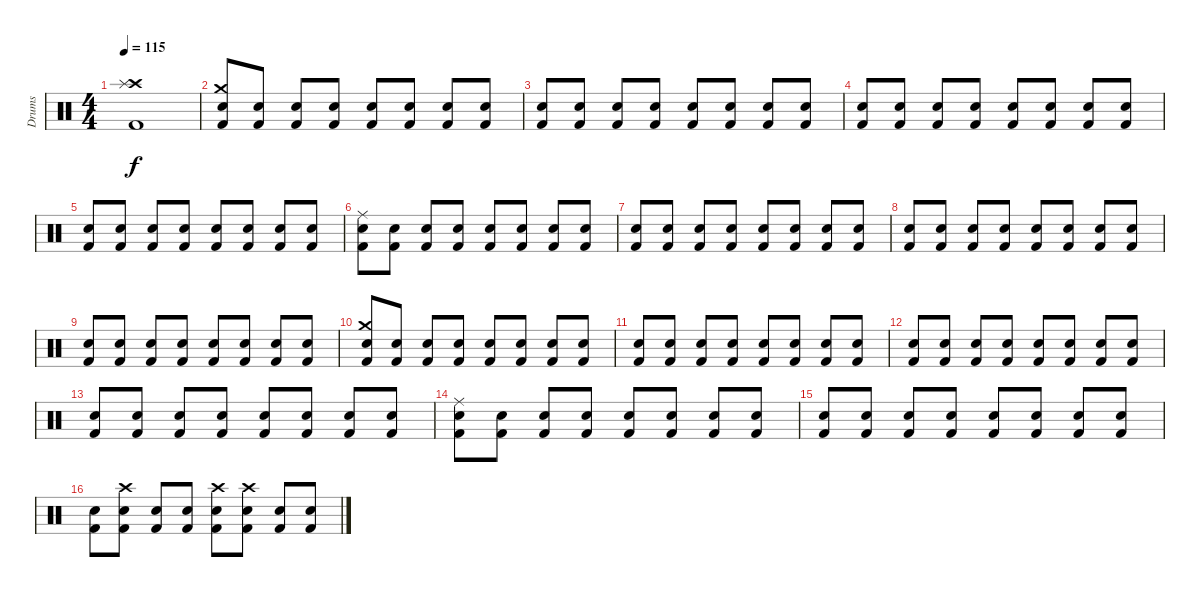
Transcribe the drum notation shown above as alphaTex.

\track ("Drums" "Drums") {instrument percussion}
\staff {score}
\articulation defaults
\ts (4 4)
\tempo 115
\clef neutral
\ks c
("Crash high (hit)" "Splash (hit)" "Kick (hit) 2").1{dy f} |
("Crash medium (hit)" "Snare (hit) 2" "Kick (hit) 2").8 ("Snare (hit) 2" "Kick (hit) 2").8 ("Snare (hit) 2" "Kick (hit) 2").8 ("Snare (hit) 2" "Kick (hit) 2").8 ("Snare (hit) 2" "Kick (hit) 2").8 ("Snare (hit) 2" "Kick (hit) 2").8 ("Snare (hit) 2" "Kick (hit) 2").8 ("Snare (hit) 2" "Kick (hit) 2").8 |
("Snare (hit) 2" "Kick (hit) 2").8 ("Snare (hit) 2" "Kick (hit) 2").8 ("Snare (hit) 2" "Kick (hit) 2").8 ("Snare (hit) 2" "Kick (hit) 2").8 ("Snare (hit) 2" "Kick (hit) 2").8 ("Snare (hit) 2" "Kick (hit) 2").8 ("Snare (hit) 2" "Kick (hit) 2").8 ("Snare (hit) 2" "Kick (hit) 2").8 |
("Snare (hit) 2" "Kick (hit) 2").8 ("Snare (hit) 2" "Kick (hit) 2").8 ("Snare (hit) 2" "Kick (hit) 2").8 ("Snare (hit) 2" "Kick (hit) 2").8 ("Snare (hit) 2" "Kick (hit) 2").8 ("Snare (hit) 2" "Kick (hit) 2").8 ("Snare (hit) 2" "Kick (hit) 2").8 ("Snare (hit) 2" "Kick (hit) 2").8 |
("Snare (hit) 2" "Kick (hit) 2").8 ("Snare (hit) 2" "Kick (hit) 2").8 ("Snare (hit) 2" "Kick (hit) 2").8 ("Snare (hit) 2" "Kick (hit) 2").8 ("Snare (hit) 2" "Kick (hit) 2").8 ("Snare (hit) 2" "Kick (hit) 2").8 ("Snare (hit) 2" "Kick (hit) 2").8 ("Snare (hit) 2" "Kick (hit) 2").8 |
("Ride (middle)" "Snare (hit) 2" "Kick (hit) 2").8 ("Snare (hit) 2" "Kick (hit) 2").8 ("Snare (hit) 2" "Kick (hit) 2").8 ("Snare (hit) 2" "Kick (hit) 2").8 ("Snare (hit) 2" "Kick (hit) 2").8 ("Snare (hit) 2" "Kick (hit) 2").8 ("Snare (hit) 2" "Kick (hit) 2").8 ("Snare (hit) 2" "Kick (hit) 2").8 |
("Snare (hit) 2" "Kick (hit) 2").8 ("Snare (hit) 2" "Kick (hit) 2").8 ("Snare (hit) 2" "Kick (hit) 2").8 ("Snare (hit) 2" "Kick (hit) 2").8 ("Snare (hit) 2" "Kick (hit) 2").8 ("Snare (hit) 2" "Kick (hit) 2").8 ("Snare (hit) 2" "Kick (hit) 2").8 ("Snare (hit) 2" "Kick (hit) 2").8 |
("Snare (hit) 2" "Kick (hit) 2").8 ("Snare (hit) 2" "Kick (hit) 2").8 ("Snare (hit) 2" "Kick (hit) 2").8 ("Snare (hit) 2" "Kick (hit) 2").8 ("Snare (hit) 2" "Kick (hit) 2").8 ("Snare (hit) 2" "Kick (hit) 2").8 ("Snare (hit) 2" "Kick (hit) 2").8 ("Snare (hit) 2" "Kick (hit) 2").8 |
("Snare (hit) 2" "Kick (hit) 2").8 ("Snare (hit) 2" "Kick (hit) 2").8 ("Snare (hit) 2" "Kick (hit) 2").8 ("Snare (hit) 2" "Kick (hit) 2").8 ("Snare (hit) 2" "Kick (hit) 2").8 ("Snare (hit) 2" "Kick (hit) 2").8 ("Snare (hit) 2" "Kick (hit) 2").8 ("Snare (hit) 2" "Kick (hit) 2").8 |
("Crash medium (hit)" "Snare (hit) 2" "Kick (hit) 2").8 ("Snare (hit) 2" "Kick (hit) 2").8 ("Snare (hit) 2" "Kick (hit) 2").8 ("Snare (hit) 2" "Kick (hit) 2").8 ("Snare (hit) 2" "Kick (hit) 2").8 ("Snare (hit) 2" "Kick (hit) 2").8 ("Snare (hit) 2" "Kick (hit) 2").8 ("Snare (hit) 2" "Kick (hit) 2").8 |
("Snare (hit) 2" "Kick (hit) 2").8 ("Snare (hit) 2" "Kick (hit) 2").8 ("Snare (hit) 2" "Kick (hit) 2").8 ("Snare (hit) 2" "Kick (hit) 2").8 ("Snare (hit) 2" "Kick (hit) 2").8 ("Snare (hit) 2" "Kick (hit) 2").8 ("Snare (hit) 2" "Kick (hit) 2").8 ("Snare (hit) 2" "Kick (hit) 2").8 |
("Snare (hit) 2" "Kick (hit) 2").8 ("Snare (hit) 2" "Kick (hit) 2").8 ("Snare (hit) 2" "Kick (hit) 2").8 ("Snare (hit) 2" "Kick (hit) 2").8 ("Snare (hit) 2" "Kick (hit) 2").8 ("Snare (hit) 2" "Kick (hit) 2").8 ("Snare (hit) 2" "Kick (hit) 2").8 ("Snare (hit) 2" "Kick (hit) 2").8 |
("Snare (hit) 2" "Kick (hit) 2").8 ("Snare (hit) 2" "Kick (hit) 2").8 ("Snare (hit) 2" "Kick (hit) 2").8 ("Snare (hit) 2" "Kick (hit) 2").8 ("Snare (hit) 2" "Kick (hit) 2").8 ("Snare (hit) 2" "Kick (hit) 2").8 ("Snare (hit) 2" "Kick (hit) 2").8 ("Snare (hit) 2" "Kick (hit) 2").8 |
("Ride (middle)" "Snare (hit) 2" "Kick (hit) 2").8 ("Snare (hit) 2" "Kick (hit) 2").8 ("Snare (hit) 2" "Kick (hit) 2").8 ("Snare (hit) 2" "Kick (hit) 2").8 ("Snare (hit) 2" "Kick (hit) 2").8 ("Snare (hit) 2" "Kick (hit) 2").8 ("Snare (hit) 2" "Kick (hit) 2").8 ("Snare (hit) 2" "Kick (hit) 2").8 |
("Snare (hit) 2" "Kick (hit) 2").8 ("Snare (hit) 2" "Kick (hit) 2").8 ("Snare (hit) 2" "Kick (hit) 2").8 ("Snare (hit) 2" "Kick (hit) 2").8 ("Snare (hit) 2" "Kick (hit) 2").8 ("Snare (hit) 2" "Kick (hit) 2").8 ("Snare (hit) 2" "Kick (hit) 2").8 ("Snare (hit) 2" "Kick (hit) 2").8 |
("Snare (hit) 2" "Kick (hit) 2").8 ("Crash high (hit)" "Snare (hit) 2" "Kick (hit) 2").8 ("Snare (hit) 2" "Kick (hit) 2").8 ("Snare (hit) 2" "Kick (hit) 2").8 ("Crash high (hit)" "Snare (hit) 2" "Kick (hit) 2").8 ("Crash high (hit)" "Snare (hit) 2" "Kick (hit) 2").8 ("Snare (hit) 2" "Kick (hit) 2").8 ("Snare (hit) 2" "Kick (hit) 2").8
